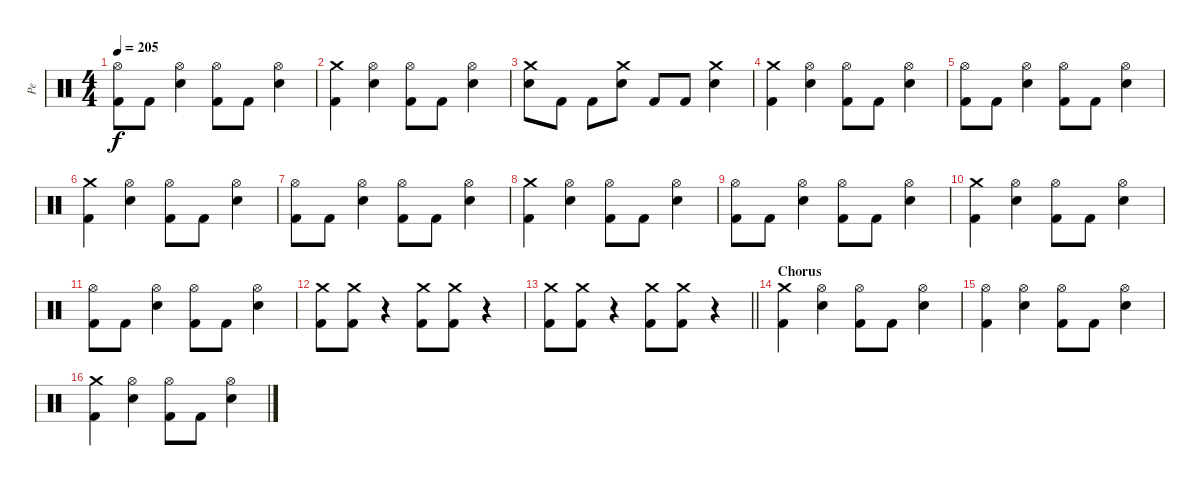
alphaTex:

\track ("Pe" "Pe") {instrument percussion}
\staff {score}
\articulation defaults
\ts (4 4)
\tempo 205
\clef neutral
\ks c
("Hi-Hat (open)" "Kick (hit) 2").8{dy f} "Kick (hit) 2".8 ("Hi-Hat (open)" "Electric Snare (hit)").4 ("Hi-Hat (open)" "Kick (hit) 2").8 "Kick (hit) 2".8 ("Hi-Hat (open)" "Electric Snare (hit)").4 |
("Crash medium (hit)" "Kick (hit) 2").4 ("Hi-Hat (open)" "Electric Snare (hit)").4 ("Hi-Hat (open)" "Kick (hit) 2").8 "Kick (hit) 2".8 ("Hi-Hat (open)" "Electric Snare (hit)").4 |
("Crash medium (hit)" "Electric Snare (hit)").8 "Kick (hit) 2".8 "Kick (hit) 2".8 ("Crash medium (hit)" "Electric Snare (hit)").8 "Kick (hit) 2".8 "Kick (hit) 2".8 ("Crash medium (hit)" "Electric Snare (hit)").4 |
("Crash medium (hit)" "Kick (hit) 2").4 ("Hi-Hat (open)" "Electric Snare (hit)").4 ("Hi-Hat (open)" "Kick (hit) 2").8 "Kick (hit) 2".8 ("Hi-Hat (open)" "Electric Snare (hit)").4 |
("Hi-Hat (open)" "Kick (hit) 2").8 "Kick (hit) 2".8 ("Hi-Hat (open)" "Electric Snare (hit)").4 ("Hi-Hat (open)" "Kick (hit) 2").8 "Kick (hit) 2".8 ("Hi-Hat (open)" "Electric Snare (hit)").4 |
("Crash medium (hit)" "Kick (hit) 2").4 ("Hi-Hat (open)" "Electric Snare (hit)").4 ("Hi-Hat (open)" "Kick (hit) 2").8 "Kick (hit) 2".8 ("Hi-Hat (open)" "Electric Snare (hit)").4 |
("Hi-Hat (open)" "Kick (hit) 2").8 "Kick (hit) 2".8 ("Hi-Hat (open)" "Electric Snare (hit)").4 ("Hi-Hat (open)" "Kick (hit) 2").8 "Kick (hit) 2".8 ("Hi-Hat (open)" "Electric Snare (hit)").4 |
("Crash medium (hit)" "Kick (hit) 2").4 ("Hi-Hat (open)" "Electric Snare (hit)").4 ("Hi-Hat (open)" "Kick (hit) 2").8 "Kick (hit) 2".8 ("Hi-Hat (open)" "Electric Snare (hit)").4 |
("Hi-Hat (open)" "Kick (hit) 2").8 "Kick (hit) 2".8 ("Hi-Hat (open)" "Electric Snare (hit)").4 ("Hi-Hat (open)" "Kick (hit) 2").8 "Kick (hit) 2".8 ("Hi-Hat (open)" "Electric Snare (hit)").4 |
("Crash medium (hit)" "Kick (hit) 2").4 ("Hi-Hat (open)" "Electric Snare (hit)").4 ("Hi-Hat (open)" "Kick (hit) 2").8 "Kick (hit) 2".8 ("Hi-Hat (open)" "Electric Snare (hit)").4 |
("Hi-Hat (open)" "Kick (hit) 2").8 "Kick (hit) 2".8 ("Hi-Hat (open)" "Electric Snare (hit)").4 ("Hi-Hat (open)" "Kick (hit) 2").8 "Kick (hit) 2".8 ("Hi-Hat (open)" "Electric Snare (hit)").4 |
("Crash medium (hit)" "Kick (hit) 2").8 ("Crash medium (hit)" "Kick (hit) 2").8 r.4 ("Crash medium (hit)" "Kick (hit) 2").8 ("Crash medium (hit)" "Kick (hit) 2").8 r.4 |
\barLineRight lightlight
("Crash medium (hit)" "Kick (hit) 2").8 ("Crash medium (hit)" "Kick (hit) 2").8 r.4 ("Crash medium (hit)" "Kick (hit) 2").8 ("Crash medium (hit)" "Kick (hit) 2").8 r.4 |
\section ("" "Chorus")
("Crash medium (hit)" "Kick (hit) 2").4 ("Hi-Hat (open)" "Electric Snare (hit)").4 ("Hi-Hat (open)" "Kick (hit) 2").8 "Kick (hit) 2".8 ("Hi-Hat (open)" "Electric Snare (hit)").4 |
("Hi-Hat (open)" "Kick (hit) 2").4 ("Hi-Hat (open)" "Electric Snare (hit)").4 ("Hi-Hat (open)" "Kick (hit) 2").8 "Kick (hit) 2".8 ("Hi-Hat (open)" "Electric Snare (hit)").4 |
("Crash medium (hit)" "Kick (hit) 2").4 ("Hi-Hat (open)" "Electric Snare (hit)").4 ("Hi-Hat (open)" "Kick (hit) 2").8 "Kick (hit) 2".8 ("Hi-Hat (open)" "Electric Snare (hit)").4
